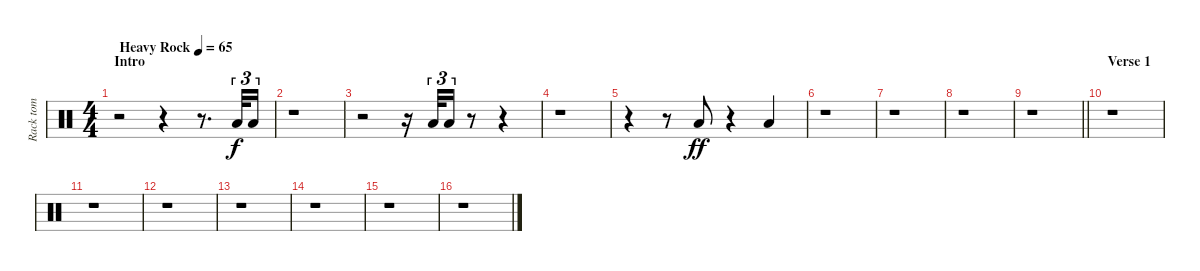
\track ("Rack tom" "Rack tom") {instrument percussion}
\staff {score}
\articulation defaults
\ts (4 4)
\section ("" "Intro")
\tempo (65 "Heavy Rock")
\clef neutral
\ks c
r.2{dy f balance 9} r.4 r.8{d} "Low Tom (hit)".32{tu (3 2)} "Low Tom (hit)".16{tu (3 2)} |
r.1 |
r.2 r.16 "Low Tom (hit)".32{tu (3 2)} "Low Tom (hit)".16{tu (3 2)} r.8 r.4 |
r.1 |
r.4 r.8 "Low Tom (hit)".8{dy ff} r.4 "Low Tom (hit)".4 |
r.1 |
r.1 |
r.1 |
\barLineRight lightlight
r.1 |
\section ("" "Verse 1")
r.1 |
r.1 |
r.1 |
r.1 |
r.1 |
r.1 |
r.1
